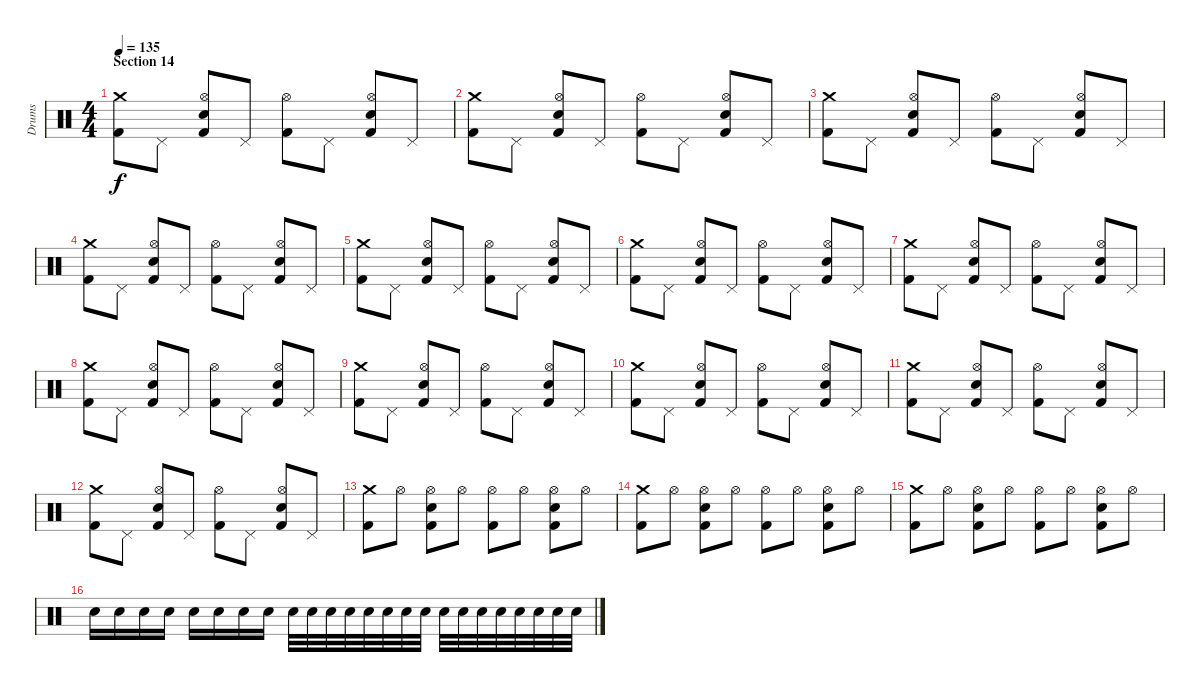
\track ("Drums" "Drums") {instrument percussion}
\staff {score}
\articulation defaults
\ts (4 4)
\section ("" "Section 14")
\tempo 135
\clef neutral
\ks c
("Crash medium (hit)" "Kick (hit) 2").8{dy f} "Pedal Hi-Hat (hit)".8 ("Hi-Hat (open)" "Electric Snare (hit)" "Kick (hit) 2").8 "Pedal Hi-Hat (hit)".8 ("Hi-Hat (open)" "Kick (hit) 2").8 "Pedal Hi-Hat (hit)".8 ("Hi-Hat (open)" "Electric Snare (hit)" "Kick (hit) 2").8 "Pedal Hi-Hat (hit)".8 |
("Crash medium (hit)" "Kick (hit) 2").8 "Pedal Hi-Hat (hit)".8 ("Hi-Hat (open)" "Electric Snare (hit)" "Kick (hit) 2").8 "Pedal Hi-Hat (hit)".8 ("Hi-Hat (open)" "Kick (hit) 2").8 "Pedal Hi-Hat (hit)".8 ("Hi-Hat (open)" "Electric Snare (hit)" "Kick (hit) 2").8 "Pedal Hi-Hat (hit)".8 |
("Crash medium (hit)" "Kick (hit) 2").8 "Pedal Hi-Hat (hit)".8 ("Hi-Hat (open)" "Electric Snare (hit)" "Kick (hit) 2").8 "Pedal Hi-Hat (hit)".8 ("Hi-Hat (open)" "Kick (hit) 2").8 "Pedal Hi-Hat (hit)".8 ("Hi-Hat (open)" "Electric Snare (hit)" "Kick (hit) 2").8 "Pedal Hi-Hat (hit)".8 |
("Crash medium (hit)" "Kick (hit) 2").8 "Pedal Hi-Hat (hit)".8 ("Hi-Hat (open)" "Electric Snare (hit)" "Kick (hit) 2").8 "Pedal Hi-Hat (hit)".8 ("Hi-Hat (open)" "Kick (hit) 2").8 "Pedal Hi-Hat (hit)".8 ("Hi-Hat (open)" "Electric Snare (hit)" "Kick (hit) 2").8 "Pedal Hi-Hat (hit)".8 |
("Crash medium (hit)" "Kick (hit) 2").8 "Pedal Hi-Hat (hit)".8 ("Hi-Hat (open)" "Electric Snare (hit)" "Kick (hit) 2").8 "Pedal Hi-Hat (hit)".8 ("Hi-Hat (open)" "Kick (hit) 2").8 "Pedal Hi-Hat (hit)".8 ("Hi-Hat (open)" "Electric Snare (hit)" "Kick (hit) 2").8 "Pedal Hi-Hat (hit)".8 |
("Crash medium (hit)" "Kick (hit) 2").8 "Pedal Hi-Hat (hit)".8 ("Hi-Hat (open)" "Electric Snare (hit)" "Kick (hit) 2").8 "Pedal Hi-Hat (hit)".8 ("Hi-Hat (open)" "Kick (hit) 2").8 "Pedal Hi-Hat (hit)".8 ("Hi-Hat (open)" "Electric Snare (hit)" "Kick (hit) 2").8 "Pedal Hi-Hat (hit)".8 |
("Crash medium (hit)" "Kick (hit) 2").8 "Pedal Hi-Hat (hit)".8 ("Hi-Hat (open)" "Electric Snare (hit)" "Kick (hit) 2").8 "Pedal Hi-Hat (hit)".8 ("Hi-Hat (open)" "Kick (hit) 2").8 "Pedal Hi-Hat (hit)".8 ("Hi-Hat (open)" "Electric Snare (hit)" "Kick (hit) 2").8 "Pedal Hi-Hat (hit)".8 |
("Crash medium (hit)" "Kick (hit) 2").8 "Pedal Hi-Hat (hit)".8 ("Hi-Hat (open)" "Electric Snare (hit)" "Kick (hit) 2").8 "Pedal Hi-Hat (hit)".8 ("Hi-Hat (open)" "Kick (hit) 2").8 "Pedal Hi-Hat (hit)".8 ("Hi-Hat (open)" "Electric Snare (hit)" "Kick (hit) 2").8 "Pedal Hi-Hat (hit)".8 |
("Crash medium (hit)" "Kick (hit) 2").8 "Pedal Hi-Hat (hit)".8 ("Hi-Hat (open)" "Electric Snare (hit)" "Kick (hit) 2").8 "Pedal Hi-Hat (hit)".8 ("Hi-Hat (open)" "Kick (hit) 2").8 "Pedal Hi-Hat (hit)".8 ("Hi-Hat (open)" "Electric Snare (hit)" "Kick (hit) 2").8 "Pedal Hi-Hat (hit)".8 |
("Crash medium (hit)" "Kick (hit) 2").8 "Pedal Hi-Hat (hit)".8 ("Hi-Hat (open)" "Electric Snare (hit)" "Kick (hit) 2").8 "Pedal Hi-Hat (hit)".8 ("Hi-Hat (open)" "Kick (hit) 2").8 "Pedal Hi-Hat (hit)".8 ("Hi-Hat (open)" "Electric Snare (hit)" "Kick (hit) 2").8 "Pedal Hi-Hat (hit)".8 |
("Crash medium (hit)" "Kick (hit) 2").8 "Pedal Hi-Hat (hit)".8 ("Hi-Hat (open)" "Electric Snare (hit)" "Kick (hit) 2").8 "Pedal Hi-Hat (hit)".8 ("Hi-Hat (open)" "Kick (hit) 2").8 "Pedal Hi-Hat (hit)".8 ("Hi-Hat (open)" "Electric Snare (hit)" "Kick (hit) 2").8 "Pedal Hi-Hat (hit)".8 |
("Crash medium (hit)" "Kick (hit) 2").8 "Pedal Hi-Hat (hit)".8 ("Hi-Hat (open)" "Electric Snare (hit)" "Kick (hit) 2").8 "Pedal Hi-Hat (hit)".8 ("Hi-Hat (open)" "Kick (hit) 2").8 "Pedal Hi-Hat (hit)".8 ("Hi-Hat (open)" "Electric Snare (hit)" "Kick (hit) 2").8 "Pedal Hi-Hat (hit)".8 |
("Crash medium (hit)" "Kick (hit) 2").8 "Hi-Hat (open)".8 ("Hi-Hat (open)" "Electric Snare (hit)" "Kick (hit) 2").8 "Hi-Hat (open)".8 ("Hi-Hat (open)" "Kick (hit) 2").8 "Hi-Hat (open)".8 ("Hi-Hat (open)" "Electric Snare (hit)" "Kick (hit) 2").8 "Hi-Hat (open)".8 |
("Crash medium (hit)" "Kick (hit) 2").8 "Hi-Hat (open)".8 ("Hi-Hat (open)" "Electric Snare (hit)" "Kick (hit) 2").8 "Hi-Hat (open)".8 ("Hi-Hat (open)" "Kick (hit) 2").8 "Hi-Hat (open)".8 ("Hi-Hat (open)" "Electric Snare (hit)" "Kick (hit) 2").8 "Hi-Hat (open)".8 |
("Crash medium (hit)" "Kick (hit) 2").8 "Hi-Hat (open)".8 ("Hi-Hat (open)" "Electric Snare (hit)" "Kick (hit) 2").8 "Hi-Hat (open)".8 ("Hi-Hat (open)" "Kick (hit) 2").8 "Hi-Hat (open)".8 ("Hi-Hat (open)" "Electric Snare (hit)" "Kick (hit) 2").8 "Hi-Hat (open)".8 |
"Electric Snare (hit)".16 "Electric Snare (hit)".16 "Electric Snare (hit)".16 "Electric Snare (hit)".16 "Electric Snare (hit)".16 "Electric Snare (hit)".16 "Electric Snare (hit)".16 "Electric Snare (hit)".16 "Electric Snare (hit)".32 "Electric Snare (hit)".32 "Electric Snare (hit)".32 "Electric Snare (hit)".32 "Electric Snare (hit)".32 "Electric Snare (hit)".32 "Electric Snare (hit)".32 "Electric Snare (hit)".32 "Electric Snare (hit)".32 "Electric Snare (hit)".32 "Electric Snare (hit)".32 "Electric Snare (hit)".32 "Electric Snare (hit)".32 "Electric Snare (hit)".32 "Electric Snare (hit)".32 "Electric Snare (hit)".32
